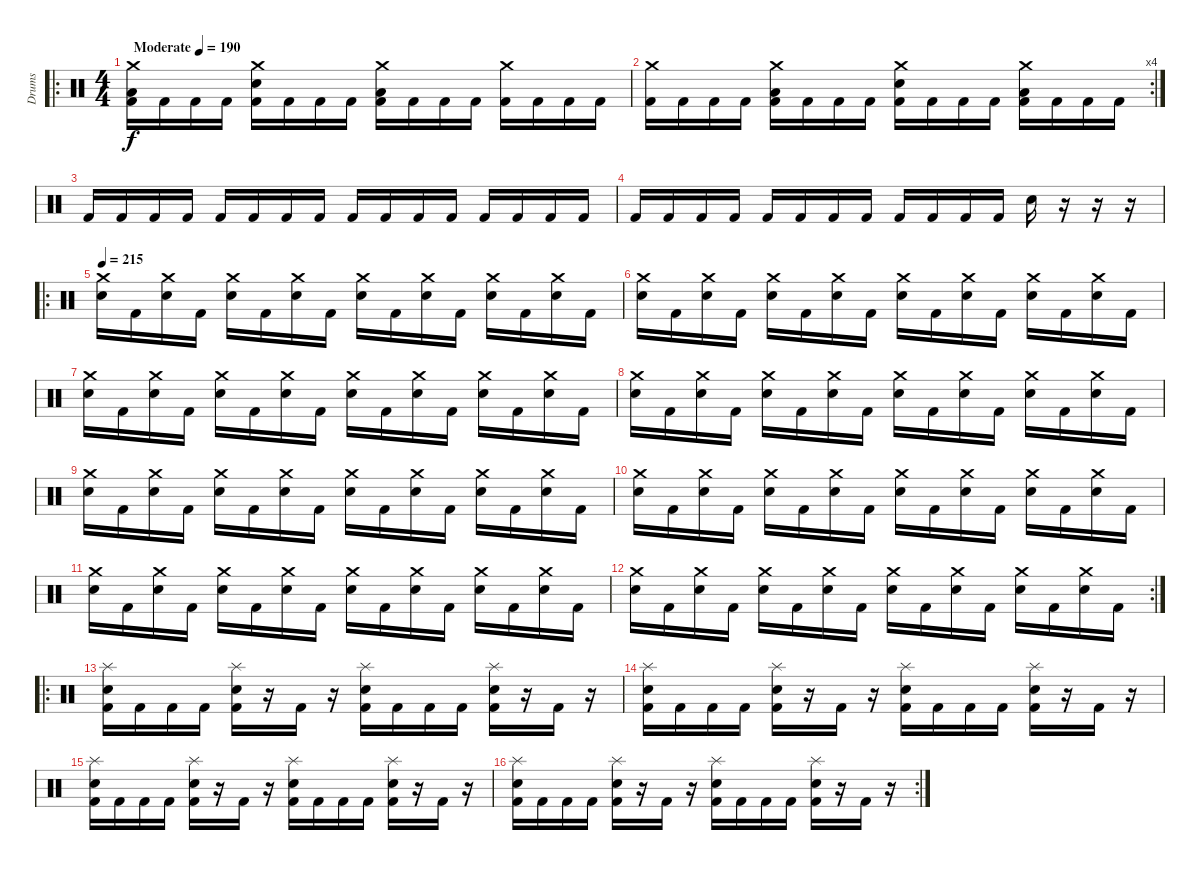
\track ("Drums" "Drums") {instrument percussion}
\staff {score}
\articulation defaults
\ro
\ts (4 4)
\tempo (190 "Moderate")
\clef neutral
\ks c
("Crash medium (hit)" "Low Floor Tom (hit)" "Kick (hit) 2").16{dy f} "Kick (hit) 2".16 "Kick (hit) 2".16 "Kick (hit) 2".16 ("Crash medium (hit)" "Electric Snare (hit)" "Kick (hit) 2").16 "Kick (hit) 2".16 "Kick (hit) 2".16 "Kick (hit) 2".16 ("Crash medium (hit)" "Low Floor Tom (hit)" "Kick (hit) 2").16 "Kick (hit) 2".16 "Kick (hit) 2".16 "Kick (hit) 2".16 ("Crash medium (hit)" "Kick (hit) 2").16 "Kick (hit) 2".16 "Kick (hit) 2".16 "Kick (hit) 2".16 |
\rc 4
("Crash medium (hit)" "Kick (hit) 2").16 "Kick (hit) 2".16 "Kick (hit) 2".16 "Kick (hit) 2".16 ("Crash medium (hit)" "Low Floor Tom (hit)" "Kick (hit) 2").16 "Kick (hit) 2".16 "Kick (hit) 2".16 "Kick (hit) 2".16 ("Crash medium (hit)" "Electric Snare (hit)" "Kick (hit) 2").16 "Kick (hit) 2".16 "Kick (hit) 2".16 "Kick (hit) 2".16 ("Crash medium (hit)" "Low Floor Tom (hit)" "Kick (hit) 2").16 "Kick (hit) 2".16 "Kick (hit) 2".16 "Kick (hit) 2".16 |
"Kick (hit) 2".16 "Kick (hit) 2".16 "Kick (hit) 2".16 "Kick (hit) 2".16 "Kick (hit) 2".16 "Kick (hit) 2".16 "Kick (hit) 2".16 "Kick (hit) 2".16 "Kick (hit) 2".16 "Kick (hit) 2".16 "Kick (hit) 2".16 "Kick (hit) 2".16 "Kick (hit) 2".16 "Kick (hit) 2".16 "Kick (hit) 2".16 "Kick (hit) 2".16 |
"Kick (hit) 2".16 "Kick (hit) 2".16 "Kick (hit) 2".16 "Kick (hit) 2".16 "Kick (hit) 2".16 "Kick (hit) 2".16 "Kick (hit) 2".16 "Kick (hit) 2".16 "Kick (hit) 2".16 "Kick (hit) 2".16 "Kick (hit) 2".16 "Kick (hit) 2".16 "Electric Snare (hit)".16 r.16 r.16 r.16 |
\ro
\tempo 215
("Crash medium (hit)" "Electric Snare (hit)").16 "Kick (hit) 2".16 ("Crash medium (hit)" "Electric Snare (hit)").16 "Kick (hit) 2".16 ("Crash medium (hit)" "Electric Snare (hit)").16 "Kick (hit) 2".16 ("Crash medium (hit)" "Electric Snare (hit)").16 "Kick (hit) 2".16 ("Crash medium (hit)" "Electric Snare (hit)").16 "Kick (hit) 2".16 ("Crash medium (hit)" "Electric Snare (hit)").16 "Kick (hit) 2".16 ("Crash medium (hit)" "Electric Snare (hit)").16 "Kick (hit) 2".16 ("Crash medium (hit)" "Electric Snare (hit)").16 "Kick (hit) 2".16 |
("Crash medium (hit)" "Electric Snare (hit)").16 "Kick (hit) 2".16 ("Crash medium (hit)" "Electric Snare (hit)").16 "Kick (hit) 2".16 ("Crash medium (hit)" "Electric Snare (hit)").16 "Kick (hit) 2".16 ("Crash medium (hit)" "Electric Snare (hit)").16 "Kick (hit) 2".16 ("Crash medium (hit)" "Electric Snare (hit)").16 "Kick (hit) 2".16 ("Crash medium (hit)" "Electric Snare (hit)").16 "Kick (hit) 2".16 ("Crash medium (hit)" "Electric Snare (hit)").16 "Kick (hit) 2".16 ("Crash medium (hit)" "Electric Snare (hit)").16 "Kick (hit) 2".16 |
("Crash medium (hit)" "Electric Snare (hit)").16 "Kick (hit) 2".16 ("Crash medium (hit)" "Electric Snare (hit)").16 "Kick (hit) 2".16 ("Crash medium (hit)" "Electric Snare (hit)").16 "Kick (hit) 2".16 ("Crash medium (hit)" "Electric Snare (hit)").16 "Kick (hit) 2".16 ("Crash medium (hit)" "Electric Snare (hit)").16 "Kick (hit) 2".16 ("Crash medium (hit)" "Electric Snare (hit)").16 "Kick (hit) 2".16 ("Crash medium (hit)" "Electric Snare (hit)").16 "Kick (hit) 2".16 ("Crash medium (hit)" "Electric Snare (hit)").16 "Kick (hit) 2".16 |
("Crash medium (hit)" "Electric Snare (hit)").16 "Kick (hit) 2".16 ("Crash medium (hit)" "Electric Snare (hit)").16 "Kick (hit) 2".16 ("Crash medium (hit)" "Electric Snare (hit)").16 "Kick (hit) 2".16 ("Crash medium (hit)" "Electric Snare (hit)").16 "Kick (hit) 2".16 ("Crash medium (hit)" "Electric Snare (hit)").16 "Kick (hit) 2".16 ("Crash medium (hit)" "Electric Snare (hit)").16 "Kick (hit) 2".16 ("Crash medium (hit)" "Electric Snare (hit)").16 "Kick (hit) 2".16 ("Crash medium (hit)" "Electric Snare (hit)").16 "Kick (hit) 2".16 |
("Crash medium (hit)" "Electric Snare (hit)").16 "Kick (hit) 2".16 ("Crash medium (hit)" "Electric Snare (hit)").16 "Kick (hit) 2".16 ("Crash medium (hit)" "Electric Snare (hit)").16 "Kick (hit) 2".16 ("Crash medium (hit)" "Electric Snare (hit)").16 "Kick (hit) 2".16 ("Crash medium (hit)" "Electric Snare (hit)").16 "Kick (hit) 2".16 ("Crash medium (hit)" "Electric Snare (hit)").16 "Kick (hit) 2".16 ("Crash medium (hit)" "Electric Snare (hit)").16 "Kick (hit) 2".16 ("Crash medium (hit)" "Electric Snare (hit)").16 "Kick (hit) 2".16 |
("Crash medium (hit)" "Electric Snare (hit)").16 "Kick (hit) 2".16 ("Crash medium (hit)" "Electric Snare (hit)").16 "Kick (hit) 2".16 ("Crash medium (hit)" "Electric Snare (hit)").16 "Kick (hit) 2".16 ("Crash medium (hit)" "Electric Snare (hit)").16 "Kick (hit) 2".16 ("Crash medium (hit)" "Electric Snare (hit)").16 "Kick (hit) 2".16 ("Crash medium (hit)" "Electric Snare (hit)").16 "Kick (hit) 2".16 ("Crash medium (hit)" "Electric Snare (hit)").16 "Kick (hit) 2".16 ("Crash medium (hit)" "Electric Snare (hit)").16 "Kick (hit) 2".16 |
("Crash medium (hit)" "Electric Snare (hit)").16 "Kick (hit) 2".16 ("Crash medium (hit)" "Electric Snare (hit)").16 "Kick (hit) 2".16 ("Crash medium (hit)" "Electric Snare (hit)").16 "Kick (hit) 2".16 ("Crash medium (hit)" "Electric Snare (hit)").16 "Kick (hit) 2".16 ("Crash medium (hit)" "Electric Snare (hit)").16 "Kick (hit) 2".16 ("Crash medium (hit)" "Electric Snare (hit)").16 "Kick (hit) 2".16 ("Crash medium (hit)" "Electric Snare (hit)").16 "Kick (hit) 2".16 ("Crash medium (hit)" "Electric Snare (hit)").16 "Kick (hit) 2".16 |
\rc 2
("Crash medium (hit)" "Electric Snare (hit)").16 "Kick (hit) 2".16 ("Crash medium (hit)" "Electric Snare (hit)").16 "Kick (hit) 2".16 ("Crash medium (hit)" "Electric Snare (hit)").16 "Kick (hit) 2".16 ("Crash medium (hit)" "Electric Snare (hit)").16 "Kick (hit) 2".16 ("Crash medium (hit)" "Electric Snare (hit)").16 "Kick (hit) 2".16 ("Crash medium (hit)" "Electric Snare (hit)").16 "Kick (hit) 2".16 ("Crash medium (hit)" "Electric Snare (hit)").16 "Kick (hit) 2".16 ("Crash medium (hit)" "Electric Snare (hit)").16 "Kick (hit) 2".16 |
\ro
("Splash (hit)" "Electric Snare (hit)" "Kick (hit) 2").16 "Kick (hit) 2".16 "Kick (hit) 2".16 "Kick (hit) 2".16 ("Splash (hit)" "Electric Snare (hit)" "Kick (hit) 2").16 r.16 "Kick (hit) 2".16 r.16 ("Splash (hit)" "Electric Snare (hit)" "Kick (hit) 2").16 "Kick (hit) 2".16 "Kick (hit) 2".16 "Kick (hit) 2".16 ("Splash (hit)" "Electric Snare (hit)" "Kick (hit) 2").16 r.16 "Kick (hit) 2".16 r.16 |
("Splash (hit)" "Electric Snare (hit)" "Kick (hit) 2").16 "Kick (hit) 2".16 "Kick (hit) 2".16 "Kick (hit) 2".16 ("Splash (hit)" "Electric Snare (hit)" "Kick (hit) 2").16 r.16 "Kick (hit) 2".16 r.16 ("Splash (hit)" "Electric Snare (hit)" "Kick (hit) 2").16 "Kick (hit) 2".16 "Kick (hit) 2".16 "Kick (hit) 2".16 ("Splash (hit)" "Electric Snare (hit)" "Kick (hit) 2").16 r.16 "Kick (hit) 2".16 r.16 |
("Splash (hit)" "Electric Snare (hit)" "Kick (hit) 2").16 "Kick (hit) 2".16 "Kick (hit) 2".16 "Kick (hit) 2".16 ("Splash (hit)" "Electric Snare (hit)" "Kick (hit) 2").16 r.16 "Kick (hit) 2".16 r.16 ("Splash (hit)" "Electric Snare (hit)" "Kick (hit) 2").16 "Kick (hit) 2".16 "Kick (hit) 2".16 "Kick (hit) 2".16 ("Splash (hit)" "Electric Snare (hit)" "Kick (hit) 2").16 r.16 "Kick (hit) 2".16 r.16 |
\rc 2
("Splash (hit)" "Electric Snare (hit)" "Kick (hit) 2").16 "Kick (hit) 2".16 "Kick (hit) 2".16 "Kick (hit) 2".16 ("Splash (hit)" "Electric Snare (hit)" "Kick (hit) 2").16 r.16 "Kick (hit) 2".16 r.16 ("Splash (hit)" "Electric Snare (hit)" "Kick (hit) 2").16 "Kick (hit) 2".16 "Kick (hit) 2".16 "Kick (hit) 2".16 ("Splash (hit)" "Electric Snare (hit)" "Kick (hit) 2").16 r.16 "Kick (hit) 2".16 r.16
